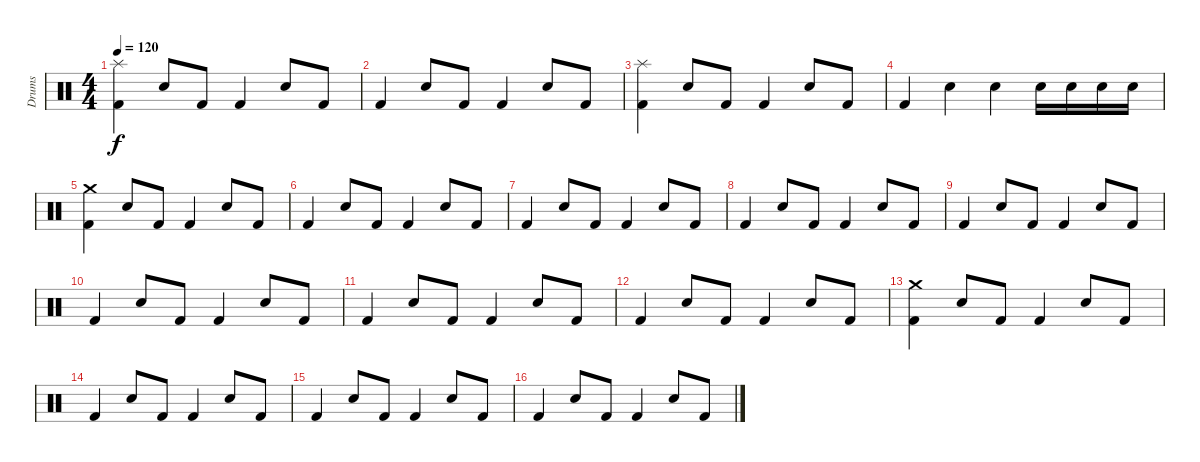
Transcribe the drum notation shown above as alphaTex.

\track ("Drums" "Drums") {instrument percussion}
\staff {score}
\articulation defaults
\ts (4 4)
\tempo 120
\clef neutral
\ks c
("Splash (hit)" "Kick (hit) 2").4{dy f} "Snare (hit) 2".8 "Kick (hit) 2".8 "Kick (hit) 2".4 "Snare (hit) 2".8 "Kick (hit) 2".8 |
"Kick (hit) 2".4 "Snare (hit) 2".8 "Kick (hit) 2".8 "Kick (hit) 2".4 "Snare (hit) 2".8 "Kick (hit) 2".8 |
("Splash (hit)" "Kick (hit) 2").4 "Snare (hit) 2".8 "Kick (hit) 2".8 "Kick (hit) 2".4 "Snare (hit) 2".8 "Kick (hit) 2".8 |
"Kick (hit) 2".4 "Snare (hit) 2".4 "Snare (hit) 2".4 "Snare (hit) 2".16 "Snare (hit) 2".16 "Snare (hit) 2".16 "Snare (hit) 2".16 |
("Crash medium (hit)" "Kick (hit) 2").4 "Snare (hit) 2".8 "Kick (hit) 2".8 "Kick (hit) 2".4 "Snare (hit) 2".8 "Kick (hit) 2".8 |
"Kick (hit) 2".4 "Snare (hit) 2".8 "Kick (hit) 2".8 "Kick (hit) 2".4 "Snare (hit) 2".8 "Kick (hit) 2".8 |
"Kick (hit) 2".4 "Snare (hit) 2".8 "Kick (hit) 2".8 "Kick (hit) 2".4 "Snare (hit) 2".8 "Kick (hit) 2".8 |
"Kick (hit) 2".4 "Snare (hit) 2".8 "Kick (hit) 2".8 "Kick (hit) 2".4 "Snare (hit) 2".8 "Kick (hit) 2".8 |
"Kick (hit) 2".4 "Snare (hit) 2".8 "Kick (hit) 2".8 "Kick (hit) 2".4 "Snare (hit) 2".8 "Kick (hit) 2".8 |
"Kick (hit) 2".4 "Snare (hit) 2".8 "Kick (hit) 2".8 "Kick (hit) 2".4 "Snare (hit) 2".8 "Kick (hit) 2".8 |
"Kick (hit) 2".4 "Snare (hit) 2".8 "Kick (hit) 2".8 "Kick (hit) 2".4 "Snare (hit) 2".8 "Kick (hit) 2".8 |
"Kick (hit) 2".4 "Snare (hit) 2".8 "Kick (hit) 2".8 "Kick (hit) 2".4 "Snare (hit) 2".8 "Kick (hit) 2".8 |
("Kick (hit) 2" "Crash medium (hit)").4 "Snare (hit) 2".8 "Kick (hit) 2".8 "Kick (hit) 2".4 "Snare (hit) 2".8 "Kick (hit) 2".8 |
"Kick (hit) 2".4 "Snare (hit) 2".8 "Kick (hit) 2".8 "Kick (hit) 2".4 "Snare (hit) 2".8 "Kick (hit) 2".8 |
"Kick (hit) 2".4 "Snare (hit) 2".8 "Kick (hit) 2".8 "Kick (hit) 2".4 "Snare (hit) 2".8 "Kick (hit) 2".8 |
"Kick (hit) 2".4 "Snare (hit) 2".8 "Kick (hit) 2".8 "Kick (hit) 2".4 "Snare (hit) 2".8 "Kick (hit) 2".8
